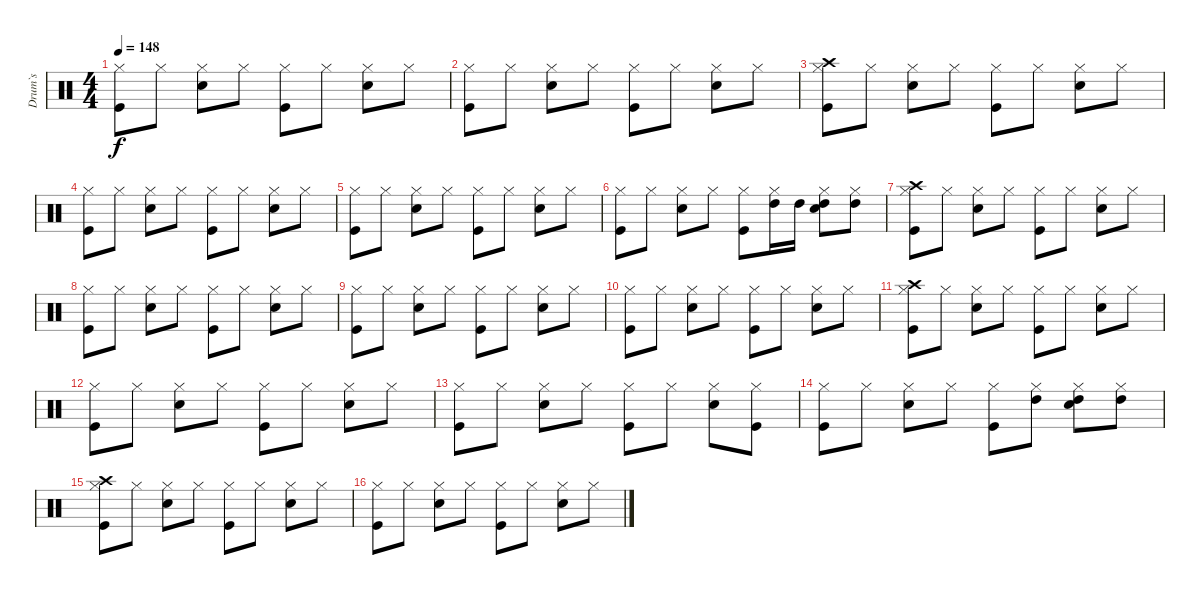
\track ("Drum`s" "Drum`s") {instrument percussion}
\staff {score}
\articulation defaults
\ts (4 4)
\tempo 148
\clef neutral
\ks c
("Hi-Hat (closed)" "Kick (hit)").8{dy f} "Hi-Hat (closed)".8 ("Hi-Hat (closed)" "Snare (hit) 2").8 "Hi-Hat (closed)".8 ("Hi-Hat (closed)" "Kick (hit)").8 "Hi-Hat (closed)".8 ("Hi-Hat (closed)" "Snare (hit) 2").8 "Hi-Hat (closed)".8 |
("Hi-Hat (closed)" "Kick (hit)").8 "Hi-Hat (closed)".8 ("Hi-Hat (closed)" "Snare (hit) 2").8 "Hi-Hat (closed)".8 ("Hi-Hat (closed)" "Kick (hit)").8 "Hi-Hat (closed)".8 ("Hi-Hat (closed)" "Snare (hit) 2").8 "Hi-Hat (closed)".8 |
("Crash high (hit)" "Hi-Hat (closed)" "Kick (hit)").8 "Hi-Hat (closed)".8 ("Hi-Hat (closed)" "Snare (hit) 2").8 "Hi-Hat (closed)".8 ("Hi-Hat (closed)" "Kick (hit)").8 "Hi-Hat (closed)".8 ("Hi-Hat (closed)" "Snare (hit) 2").8 "Hi-Hat (closed)".8 |
("Hi-Hat (closed)" "Kick (hit)").8 "Hi-Hat (closed)".8 ("Hi-Hat (closed)" "Snare (hit) 2").8 "Hi-Hat (closed)".8 ("Hi-Hat (closed)" "Kick (hit)").8 "Hi-Hat (closed)".8 ("Hi-Hat (closed)" "Snare (hit) 2").8 "Hi-Hat (closed)".8 |
("Hi-Hat (closed)" "Kick (hit)").8 "Hi-Hat (closed)".8 ("Hi-Hat (closed)" "Snare (hit) 2").8 "Hi-Hat (closed)".8 ("Hi-Hat (closed)" "Kick (hit)").8 "Hi-Hat (closed)".8 ("Hi-Hat (closed)" "Snare (hit) 2").8 "Hi-Hat (closed)".8 |
("Hi-Hat (closed)" "Kick (hit)").8 "Hi-Hat (closed)".8 ("Hi-Hat (closed)" "Snare (hit) 2").8 "Hi-Hat (closed)".8 ("Hi-Hat (closed)" "Kick (hit)").8 ("High Tom (hit)" "Hi-Hat (closed)").16 "High Tom (hit)".16 ("High Tom (hit)" "Hi-Hat (closed)" "Snare (hit) 2").8 ("High Tom (hit)" "Hi-Hat (closed)").8 |
("Crash high (hit)" "Hi-Hat (closed)" "Kick (hit)").8 "Hi-Hat (closed)".8 ("Hi-Hat (closed)" "Snare (hit) 2").8 "Hi-Hat (closed)".8 ("Hi-Hat (closed)" "Kick (hit)").8 "Hi-Hat (closed)".8 ("Hi-Hat (closed)" "Snare (hit) 2").8 "Hi-Hat (closed)".8 |
("Hi-Hat (closed)" "Kick (hit)").8 "Hi-Hat (closed)".8 ("Hi-Hat (closed)" "Snare (hit) 2").8 "Hi-Hat (closed)".8 ("Hi-Hat (closed)" "Kick (hit)").8 "Hi-Hat (closed)".8 ("Hi-Hat (closed)" "Snare (hit) 2").8 "Hi-Hat (closed)".8 |
("Hi-Hat (closed)" "Kick (hit)").8 "Hi-Hat (closed)".8 ("Hi-Hat (closed)" "Snare (hit) 2").8 "Hi-Hat (closed)".8 ("Hi-Hat (closed)" "Kick (hit)").8 "Hi-Hat (closed)".8 ("Hi-Hat (closed)" "Snare (hit) 2").8 "Hi-Hat (closed)".8 |
("Hi-Hat (closed)" "Kick (hit)").8 "Hi-Hat (closed)".8 ("Hi-Hat (closed)" "Snare (hit) 2").8 "Hi-Hat (closed)".8 ("Hi-Hat (closed)" "Kick (hit)").8 "Hi-Hat (closed)".8 ("Hi-Hat (closed)" "Snare (hit) 2").8 "Hi-Hat (closed)".8 |
("Crash high (hit)" "Hi-Hat (closed)" "Kick (hit)").8 "Hi-Hat (closed)".8 ("Hi-Hat (closed)" "Snare (hit) 2").8 "Hi-Hat (closed)".8 ("Hi-Hat (closed)" "Kick (hit)").8 "Hi-Hat (closed)".8 ("Hi-Hat (closed)" "Snare (hit) 2").8 "Hi-Hat (closed)".8 |
("Hi-Hat (closed)" "Kick (hit)").8 "Hi-Hat (closed)".8 ("Hi-Hat (closed)" "Snare (hit) 2").8 "Hi-Hat (closed)".8 ("Hi-Hat (closed)" "Kick (hit)").8 "Hi-Hat (closed)".8 ("Hi-Hat (closed)" "Snare (hit) 2").8 "Hi-Hat (closed)".8 |
("Hi-Hat (closed)" "Kick (hit)").8 "Hi-Hat (closed)".8 ("Hi-Hat (closed)" "Snare (hit) 2").8 "Hi-Hat (closed)".8 ("Hi-Hat (closed)" "Kick (hit)").8 "Hi-Hat (closed)".8 ("Hi-Hat (closed)" "Snare (hit) 2").8 ("Kick (hit)" "Hi-Hat (closed)").8 |
("Hi-Hat (closed)" "Kick (hit)").8 "Hi-Hat (closed)".8 ("Hi-Hat (closed)" "Snare (hit) 2").8 "Hi-Hat (closed)".8 ("Kick (hit)" "Hi-Hat (closed)").8 ("High Tom (hit)" "Hi-Hat (closed)").8 ("High Tom (hit)" "Hi-Hat (closed)" "Snare (hit) 2").8 ("High Tom (hit)" "Hi-Hat (closed)").8 |
("Crash high (hit)" "Kick (hit)" "Hi-Hat (closed)").8 "Hi-Hat (closed)".8 ("Hi-Hat (closed)" "Snare (hit) 2").8 "Hi-Hat (closed)".8 ("Kick (hit)" "Hi-Hat (closed)").8 "Hi-Hat (closed)".8 ("Hi-Hat (closed)" "Snare (hit) 2").8 "Hi-Hat (closed)".8 |
("Kick (hit)" "Hi-Hat (closed)").8 "Hi-Hat (closed)".8 ("Hi-Hat (closed)" "Snare (hit) 2").8 "Hi-Hat (closed)".8 ("Kick (hit)" "Hi-Hat (closed)").8 "Hi-Hat (closed)".8 ("Hi-Hat (closed)" "Snare (hit) 2").8 "Hi-Hat (closed)".8
